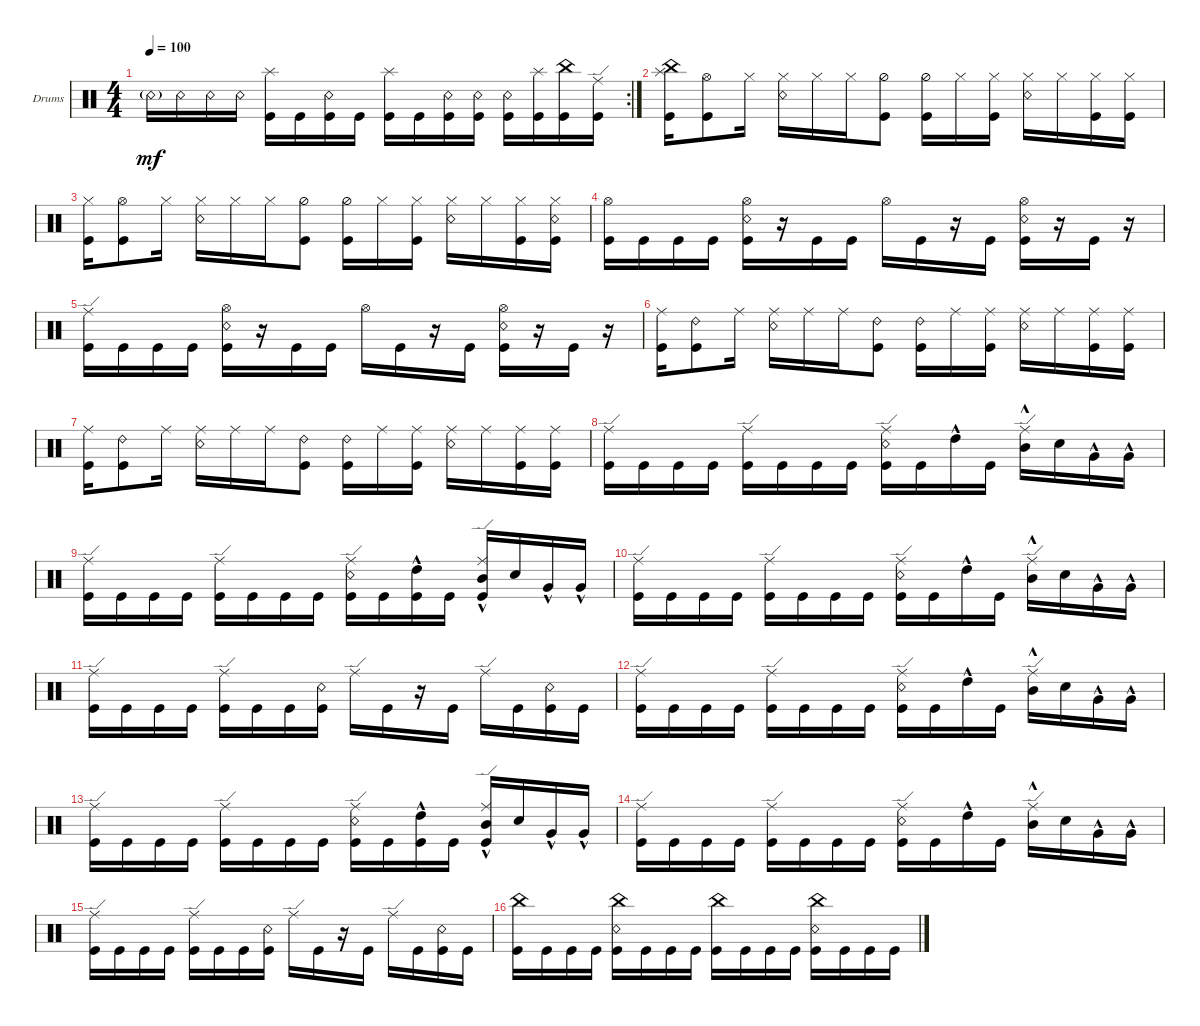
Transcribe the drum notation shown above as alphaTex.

\defaultSystemsLayout 4
\bracketExtendMode groupsimilarinstruments
\firstSystemTrackNameOrientation horizontal
\otherSystemsTrackNameOrientation horizontal
\track ("Drumkit" "Drums") {instrument percussion}
\staff {score}
\articulation defaults
\rc 2
\ts (4 4)
\tempo 100
\clef neutral
\ks c "Snare (rim shot)"{g}.16{dy mf} "Snare (rim shot)".16 "Snare (rim shot)".16 "Snare (rim shot)".16
("Kick (hit)" "Splash (hit)").16 "Kick (hit)".16 ("Kick (hit)" "Snare (rim shot)").16 "Kick (hit)".16 ("Splash (hit)" "Kick (hit)").16 "Kick (hit)".16 ("Kick (hit)" "Snare (rim shot)").16 ("Kick (hit)" "Snare (rim shot)").16 ("Kick (hit)" "Snare (rim shot)").16 ("Kick (hit)" "Splash (hit)").16 ("Kick (hit)" "China (hit)").16 ("Kick (hit)" "Ride (edge)").16 |
("Kick (hit)" "Splash (hit)" "China (hit)").16 ("Kick (hit)" "Hi-Hat (open)").8 "Hi-Hat (closed)".16 ("Hi-Hat (closed)" "Snare (rim shot)").16 "Hi-Hat (closed)".16 "Hi-Hat (closed)".16 ("Kick (hit)" "Hi-Hat (half)").8 ("Hi-Hat (half)" "Kick (hit)").16 "Hi-Hat (closed)".16 ("Hi-Hat (closed)" "Kick (hit)").16 ("Snare (rim shot)" "Hi-Hat (closed)").16 "Hi-Hat (closed)".16 ("Hi-Hat (closed)" "Kick (hit)").16 ("Hi-Hat (closed)" "Kick (hit)").16 |
("Hi-Hat (closed)" "Kick (hit)").16 ("Kick (hit)" "Hi-Hat (open)").8 "Hi-Hat (closed)".16 ("Hi-Hat (closed)" "Snare (rim shot)").16 "Hi-Hat (closed)".16 "Hi-Hat (closed)".16 ("Kick (hit)" "Hi-Hat (half)").8 ("Hi-Hat (half)" "Kick (hit)").16 "Hi-Hat (closed)".16 ("Hi-Hat (closed)" "Kick (hit)").16 ("Snare (rim shot)" "Hi-Hat (closed)").16 "Hi-Hat (closed)".16 ("Hi-Hat (closed)" "Kick (hit)").16 ("Hi-Hat (closed)" "Kick (hit)" "Snare (rim shot)").16 |
("Hi-Hat (open)" "Kick (hit)").16 "Kick (hit)".16 "Kick (hit)".16 "Kick (hit)".16 ("Kick (hit)" "Hi-Hat (open)" "Snare (rim shot)").16 r.16 "Kick (hit)".16 "Kick (hit)".16 "Hi-Hat (open)".16 "Kick (hit)".16 r.16 "Kick (hit)".16 ("Kick (hit)" "Hi-Hat (open)" "Snare (rim shot)").16 r.16 "Kick (hit)".16 r.16 |
("Kick (hit)" "Ride (edge)").16 "Kick (hit)".16 "Kick (hit)".16 "Kick (hit)".16 ("Kick (hit)" "Hi-Hat (open)" "Snare (rim shot)").16 r.16 "Kick (hit)".16 "Kick (hit)".16 "Hi-Hat (open)".16 "Kick (hit)".16 r.16 "Kick (hit)".16 ("Kick (hit)" "Hi-Hat (open)" "Snare (rim shot)").16 r.16 "Kick (hit)".16 r.16 |
("Kick (hit)" "Ride (middle)").16 ("Kick (hit)" "Ride (bell) 2").8 "Ride (middle)".16 ("Snare (rim shot)" "Ride (middle)").16 "Ride (middle)".16 "Ride (middle)".16 ("Kick (hit)" "Ride (bell) 2").8 ("Kick (hit)" "Ride (bell) 2").16 "Ride (middle)".16 ("Kick (hit)" "Ride (middle)").16 ("Snare (rim shot)" "Ride (middle)").16 "Ride (middle)".16 ("Kick (hit)" "Ride (middle)").16 ("Kick (hit)" "Ride (middle)").16 |
("Kick (hit)" "Ride (middle)").16 ("Kick (hit)" "Ride (bell) 2").8 "Ride (middle)".16 ("Snare (rim shot)" "Ride (middle)").16 "Ride (middle)".16 "Ride (middle)".16 ("Kick (hit)" "Ride (bell) 2").8 ("Kick (hit)" "Ride (bell) 2").16 "Ride (middle)".16 ("Kick (hit)" "Ride (middle)").16 ("Snare (rim shot)" "Ride (middle)").16 "Ride (middle)".16 ("Kick (hit)" "Ride (middle)").16 ("Kick (hit)" "Ride (middle)").16 |
("Ride (edge)" "Kick (hit)").16 "Kick (hit)".16 "Kick (hit)".16 "Kick (hit)".16 ("Kick (hit)" "Ride (edge)").16 "Kick (hit)".16 "Kick (hit)".16 "Kick (hit)".16 ("Kick (hit)" "Ride (edge)" "Snare (rim shot)").16 "Kick (hit)".16 "High Tom (hit)"{hac}.16 "Kick (hit)".16 ("Ride (edge)" "Mid Tom (hit)"{hac}).16 "Snare (hit) 2".16 "Very Low Tom (hit)"{hac}.16 "Very Low Tom (hit)"{hac}.16 |
("Ride (edge)" "Kick (hit)").16 "Kick (hit)".16 "Kick (hit)".16 "Kick (hit)".16 ("Kick (hit)" "Ride (edge)").16 "Kick (hit)".16 "Kick (hit)".16 "Kick (hit)".16 ("Kick (hit)" "Ride (edge)" "Snare (rim shot)").16 "Kick (hit)".16 ("Kick (hit)" "High Tom (hit)"{hac}).16 "Kick (hit)".16 ("Kick (hit)" "Ride (edge)" "Mid Tom (hit)"{hac}).16 "Snare (hit) 2".16 "Very Low Tom (hit)"{hac}.16 "Very Low Tom (hit)"{hac}.16 |
("Ride (edge)" "Kick (hit)").16 "Kick (hit)".16 "Kick (hit)".16 "Kick (hit)".16 ("Kick (hit)" "Ride (edge)").16 "Kick (hit)".16 "Kick (hit)".16 "Kick (hit)".16 ("Kick (hit)" "Ride (edge)" "Snare (rim shot)").16 "Kick (hit)".16 "High Tom (hit)"{hac}.16 "Kick (hit)".16 ("Ride (edge)" "Mid Tom (hit)"{hac}).16 "Snare (hit) 2".16 "Very Low Tom (hit)"{hac}.16 "Very Low Tom (hit)"{hac}.16 |
("Ride (edge)" "Kick (hit)").16 "Kick (hit)".16 "Kick (hit)".16 "Kick (hit)".16 ("Kick (hit)" "Ride (edge)").16 "Kick (hit)".16 "Kick (hit)".16 ("Kick (hit)" "Snare (rim shot)").16 "Ride (edge)".16 "Kick (hit)".16 r.16 "Kick (hit)".16 "Ride (edge)".16 "Kick (hit)".16 ("Kick (hit)" "Snare (rim shot)").16 "Kick (hit)".16 |
("Ride (edge)" "Kick (hit)").16 "Kick (hit)".16 "Kick (hit)".16 "Kick (hit)".16 ("Kick (hit)" "Ride (edge)").16 "Kick (hit)".16 "Kick (hit)".16 "Kick (hit)".16 ("Kick (hit)" "Ride (edge)" "Snare (rim shot)").16 "Kick (hit)".16 "High Tom (hit)"{hac}.16 "Kick (hit)".16 ("Ride (edge)" "Mid Tom (hit)"{hac}).16 "Snare (hit) 2".16 "Very Low Tom (hit)"{hac}.16 "Very Low Tom (hit)"{hac}.16 |
("Ride (edge)" "Kick (hit)").16 "Kick (hit)".16 "Kick (hit)".16 "Kick (hit)".16 ("Kick (hit)" "Ride (edge)").16 "Kick (hit)".16 "Kick (hit)".16 "Kick (hit)".16 ("Kick (hit)" "Ride (edge)" "Snare (rim shot)").16 "Kick (hit)".16 ("Kick (hit)" "High Tom (hit)"{hac}).16 "Kick (hit)".16 ("Kick (hit)" "Ride (edge)" "Mid Tom (hit)"{hac}).16 "Snare (hit) 2".16 "Very Low Tom (hit)"{hac}.16 "Very Low Tom (hit)"{hac}.16 |
("Ride (edge)" "Kick (hit)").16 "Kick (hit)".16 "Kick (hit)".16 "Kick (hit)".16 ("Kick (hit)" "Ride (edge)").16 "Kick (hit)".16 "Kick (hit)".16 "Kick (hit)".16 ("Kick (hit)" "Ride (edge)" "Snare (rim shot)").16 "Kick (hit)".16 "High Tom (hit)"{hac}.16 "Kick (hit)".16 ("Ride (edge)" "Mid Tom (hit)"{hac}).16 "Snare (hit) 2".16 "Very Low Tom (hit)"{hac}.16 "Very Low Tom (hit)"{hac}.16 |
("Ride (edge)" "Kick (hit)").16 "Kick (hit)".16 "Kick (hit)".16 "Kick (hit)".16 ("Kick (hit)" "Ride (edge)").16 "Kick (hit)".16 "Kick (hit)".16 ("Kick (hit)" "Snare (rim shot)").16 "Ride (edge)".16 "Kick (hit)".16 r.16 "Kick (hit)".16 "Ride (edge)".16 "Kick (hit)".16 ("Kick (hit)" "Snare (rim shot)").16 "Kick (hit)".16 |
("Kick (hit)" "China (hit)").16 "Kick (hit)".16 "Kick (hit)".16 "Kick (hit)".16 ("Kick (hit)" "China (hit)" "Snare (rim shot)").16 "Kick (hit)".16 "Kick (hit)".16 "Kick (hit)".16 ("Kick (hit)" "China (hit)").16 "Kick (hit)".16 "Kick (hit)".16 "Kick (hit)".16 ("Kick (hit)" "China (hit)" "Snare (rim shot)").16 "Kick (hit)".16 "Kick (hit)".16 "Kick (hit)".16
